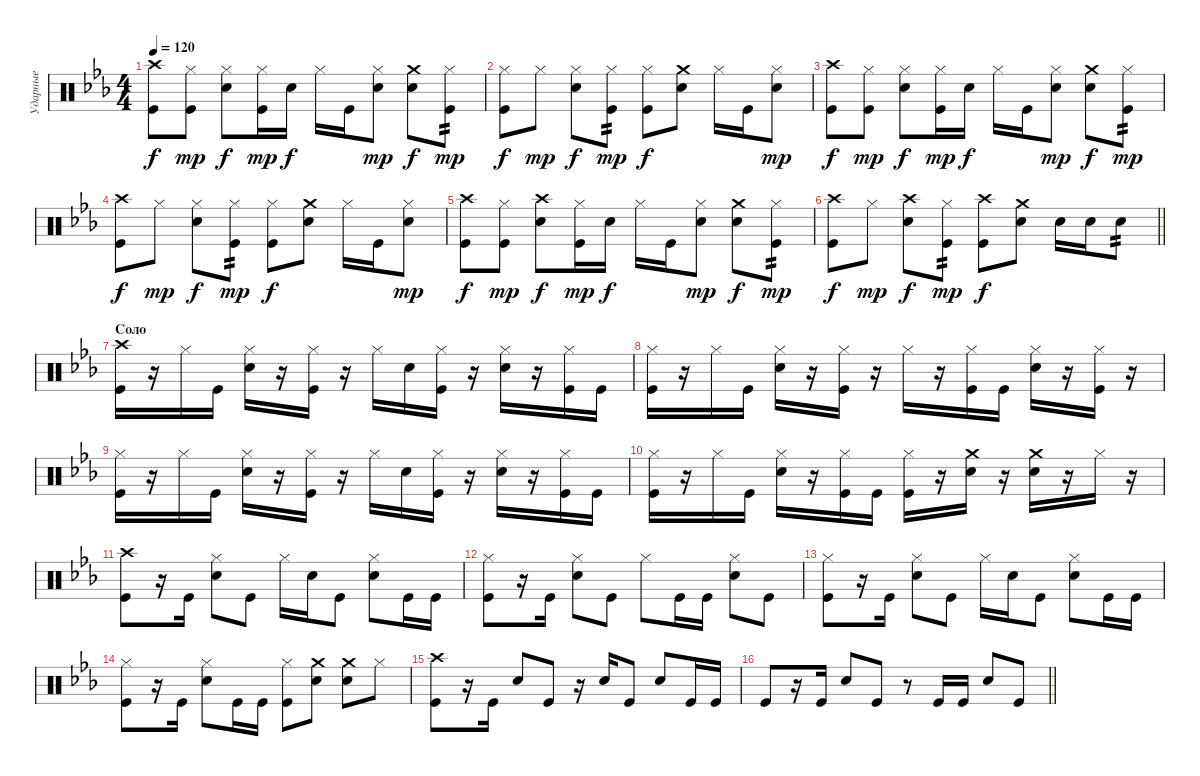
\track ("Ударные" "Ударные") {instrument percussion}
\staff {score}
\articulation defaults
\ts (4 4)
\tempo 120
\clef neutral
\ks cminor
("Crash high (hit)" "Kick (hit)").8{dy f} ("Hi-Hat (closed)" "Kick (hit)").8{dy mp} ("Hi-Hat (closed)" "Snare (hit) 2").8{dy f} ("Hi-Hat (closed)" "Kick (hit)").16{dy mp} "Snare (hit) 2".16{dy f} "Hi-Hat (closed)".16 "Kick (hit)".16 ("Hi-Hat (closed)" "Snare (hit) 2").8{dy mp} ("Crash medium (hit)" "Snare (hit) 2").8{dy f} ("Hi-Hat (closed)" "Kick (hit)").8{tp 2 dy mp} |
("Hi-Hat (closed)" "Kick (hit)").8{dy f} "Hi-Hat (closed)".8{dy mp} ("Hi-Hat (closed)" "Snare (hit) 2").8{dy f} ("Hi-Hat (closed)" "Kick (hit)").8{tp 2 dy mp} ("Hi-Hat (closed)" "Kick (hit)").8{dy f} ("Crash medium (hit)" "Snare (hit) 2").8 "Hi-Hat (closed)".16 "Kick (hit)".16 ("Hi-Hat (closed)" "Snare (hit) 2").8{dy mp} |
("Crash high (hit)" "Kick (hit)").8{dy f} ("Hi-Hat (closed)" "Kick (hit)").8{dy mp} ("Hi-Hat (closed)" "Snare (hit) 2").8{dy f} ("Hi-Hat (closed)" "Kick (hit)").16{dy mp} "Snare (hit) 2".16{dy f} "Hi-Hat (closed)".16 "Kick (hit)".16 ("Hi-Hat (closed)" "Snare (hit) 2").8{dy mp} ("Crash medium (hit)" "Snare (hit) 2").8{dy f} ("Hi-Hat (closed)" "Kick (hit)").8{tp 2 dy mp} |
("Crash high (hit)" "Kick (hit)").8{dy f} "Hi-Hat (closed)".8{dy mp} ("Hi-Hat (closed)" "Snare (hit) 2").8{dy f} ("Hi-Hat (closed)" "Kick (hit)").8{tp 2 dy mp} ("Hi-Hat (closed)" "Kick (hit)").8{dy f} ("Crash medium (hit)" "Snare (hit) 2").8 "Hi-Hat (closed)".16 "Kick (hit)".16 ("Hi-Hat (closed)" "Snare (hit) 2").8{dy mp} |
("Crash high (hit)" "Kick (hit)").8{dy f} ("Hi-Hat (closed)" "Kick (hit)").8{dy mp} ("Crash high (hit)" "Snare (hit) 2").8{dy f} ("Hi-Hat (closed)" "Kick (hit)").16{dy mp} "Snare (hit) 2".16{dy f} "Hi-Hat (closed)".16 "Kick (hit)".16 ("Hi-Hat (closed)" "Snare (hit) 2").8{dy mp} ("Crash medium (hit)" "Snare (hit) 2").8{dy f} ("Hi-Hat (closed)" "Kick (hit)").8{tp 2 dy mp} |
\barLineRight lightlight
("Crash high (hit)" "Kick (hit)").8{dy f} "Hi-Hat (closed)".8{dy mp} ("Crash high (hit)" "Snare (hit) 2").8{dy f} ("Hi-Hat (closed)" "Kick (hit)").8{tp 2 dy mp} ("Crash high (hit)" "Kick (hit)").8{dy f} ("Crash medium (hit)" "Snare (hit) 2").8 "Snare (hit) 2".16 "Snare (hit) 2".16 "Snare (hit) 2".8{tp 2} |
\section ("" "Соло")
("Crash high (hit)" "Kick (hit)").16 r.16 "Hi-Hat (closed)".16 "Kick (hit)".16 ("Hi-Hat (closed)" "Snare (hit) 2").16 r.16 ("Hi-Hat (closed)" "Kick (hit)").16 r.16 "Hi-Hat (closed)".16 "Snare (hit) 2".16 ("Hi-Hat (closed)" "Kick (hit)").16 r.16 ("Hi-Hat (closed)" "Snare (hit) 2").16 r.16 ("Hi-Hat (closed)" "Kick (hit)").16 "Kick (hit)".16 |
("Hi-Hat (closed)" "Kick (hit)").16 r.16 "Hi-Hat (closed)".16 "Kick (hit)".16 ("Hi-Hat (closed)" "Snare (hit) 2").16 r.16 ("Hi-Hat (closed)" "Kick (hit)").16 r.16 "Hi-Hat (closed)".16 r.16 ("Hi-Hat (closed)" "Kick (hit)").16 "Kick (hit)".16 ("Hi-Hat (closed)" "Snare (hit) 2").16 r.16 ("Hi-Hat (closed)" "Kick (hit)").16 r.16 |
("Hi-Hat (closed)" "Kick (hit)").16 r.16 "Hi-Hat (closed)".16 "Kick (hit)".16 ("Hi-Hat (closed)" "Snare (hit) 2").16 r.16 ("Hi-Hat (closed)" "Kick (hit)").16 r.16 "Hi-Hat (closed)".16 "Snare (hit) 2".16 ("Hi-Hat (closed)" "Kick (hit)").16 r.16 ("Hi-Hat (closed)" "Snare (hit) 2").16 r.16 ("Hi-Hat (closed)" "Kick (hit)").16 "Kick (hit)".16 |
("Hi-Hat (closed)" "Kick (hit)").16 r.16 "Hi-Hat (closed)".16 "Kick (hit)".16 ("Hi-Hat (closed)" "Snare (hit) 2").16 r.16 ("Hi-Hat (closed)" "Kick (hit)").16 "Kick (hit)".16 ("Hi-Hat (closed)" "Kick (hit)").16 r.16 ("Crash medium (hit)" "Snare (hit) 2").16 r.16 ("Crash medium (hit)" "Snare (hit) 2").16 r.16 "Hi-Hat (closed)".16 r.16 |
("Crash high (hit)" "Kick (hit)").8 r.16 "Kick (hit)".16 ("Hi-Hat (closed)" "Snare (hit) 2").8 "Kick (hit)".8 "Hi-Hat (closed)".16 "Snare (hit) 2".16 "Kick (hit)".8 ("Hi-Hat (closed)" "Snare (hit) 2").8 "Kick (hit)".16 "Kick (hit)".16 |
("Hi-Hat (closed)" "Kick (hit)").8 r.16 "Kick (hit)".16 ("Hi-Hat (closed)" "Snare (hit) 2").8 "Kick (hit)".8 "Hi-Hat (closed)".8 "Kick (hit)".16 "Kick (hit)".16 ("Hi-Hat (closed)" "Snare (hit) 2").8 "Kick (hit)".8 |
("Hi-Hat (closed)" "Kick (hit)").8 r.16 "Kick (hit)".16 ("Hi-Hat (closed)" "Snare (hit) 2").8 "Kick (hit)".8 "Hi-Hat (closed)".16 "Snare (hit) 2".16 "Kick (hit)".8 ("Hi-Hat (closed)" "Snare (hit) 2").8 "Kick (hit)".16 "Kick (hit)".16 |
("Hi-Hat (closed)" "Kick (hit)").8 r.16 "Kick (hit)".16 ("Hi-Hat (closed)" "Snare (hit) 2").8 "Kick (hit)".16 "Kick (hit)".16 ("Hi-Hat (closed)" "Kick (hit)").8 ("Crash medium (hit)" "Snare (hit) 2").8 ("Crash medium (hit)" "Snare (hit) 2").8 "Hi-Hat (closed)".8 |
("Crash high (hit)" "Kick (hit)").8 r.16 "Kick (hit)".16 "Snare (hit) 2".8 "Kick (hit)".8 r.16 "Snare (hit) 2".16 "Kick (hit)".8 "Snare (hit) 2".8 "Kick (hit)".16 "Kick (hit)".16 |
\barLineRight lightlight "Kick (hit)".8
r.16 "Kick (hit)".16 "Snare (hit) 2".8 "Kick (hit)".8 r.8 "Kick (hit)".16 "Kick (hit)".16 "Snare (hit) 2".8 "Kick (hit)".8
